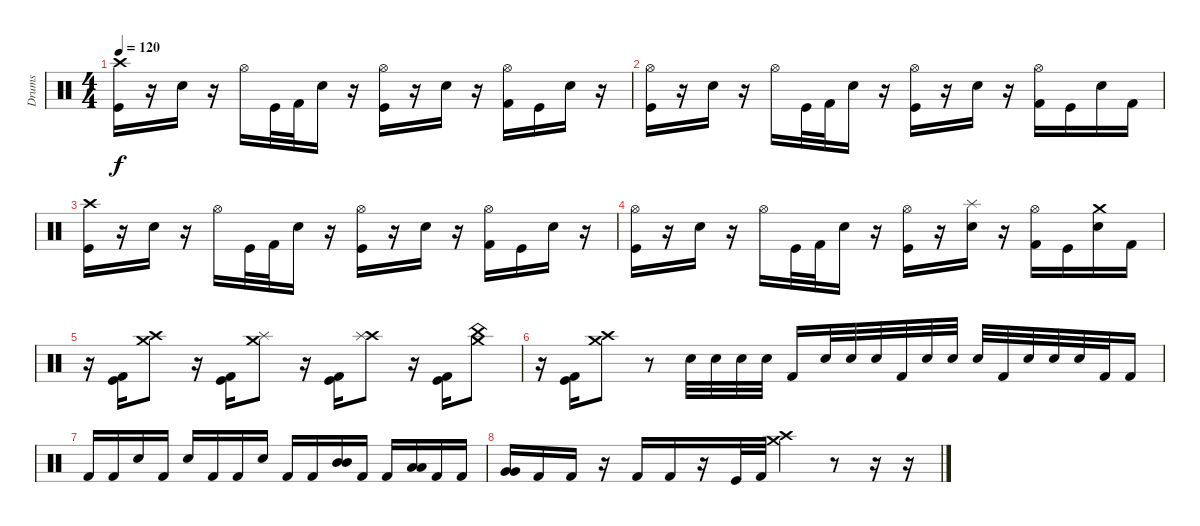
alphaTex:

\track ("Drums" "Drums") {instrument percussion}
\staff {score}
\articulation defaults
\ts (4 4)
\tempo 120
\clef neutral
\ks c
("Crash high (hit)" "Kick (hit)").16{dy f} r.16 "Electric Snare (hit)".16 r.16 "Hi-Hat (open)".16 "Kick (hit)".32 "Kick (hit) 2".32 "Electric Snare (hit)".16 r.16 ("Hi-Hat (open)" "Kick (hit)").16 r.16 "Electric Snare (hit)".16 r.16 ("Hi-Hat (open)" "Kick (hit) 2").16 "Kick (hit)".16 "Electric Snare (hit)".16 r.16 |
("Hi-Hat (open)" "Kick (hit)").16 r.16 "Electric Snare (hit)".16 r.16 "Hi-Hat (open)".16 "Kick (hit)".32 "Kick (hit) 2".32 "Electric Snare (hit)".16 r.16 ("Hi-Hat (open)" "Kick (hit)").16 r.16 "Electric Snare (hit)".16 r.16 ("Hi-Hat (open)" "Kick (hit) 2").16 "Kick (hit)".16 "Electric Snare (hit)".16 "Kick (hit) 2".16 |
("Crash high (hit)" "Kick (hit)").16 r.16 "Electric Snare (hit)".16 r.16 "Hi-Hat (open)".16 "Kick (hit)".32 "Kick (hit) 2".32 "Electric Snare (hit)".16 r.16 ("Hi-Hat (open)" "Kick (hit)").16 r.16 "Electric Snare (hit)".16 r.16 ("Hi-Hat (open)" "Kick (hit) 2").16 "Kick (hit)".16 "Electric Snare (hit)".16 r.16 |
("Hi-Hat (open)" "Kick (hit)").16 r.16 "Electric Snare (hit)".16 r.16 "Hi-Hat (open)".16 "Kick (hit)".32 "Kick (hit) 2".32 "Electric Snare (hit)".16 r.16 ("Hi-Hat (open)" "Kick (hit)").16 r.16 ("Splash (hit)" "Electric Snare (hit)").16 r.16 ("Hi-Hat (open)" "Kick (hit) 2").16 "Kick (hit)".16 ("Crash medium (hit)" "Electric Snare (hit)").16 "Kick (hit) 2".16 |
r.16 ("Kick (hit) 2" "Kick (hit)").16 ("Crash medium (hit)" "Crash high (hit)").8 r.16 ("Kick (hit) 2" "Kick (hit)").16 ("Splash (hit)" "Crash medium (hit)").8 r.16 ("Kick (hit) 2" "Kick (hit)").16 ("Crash high (hit)" "Splash (hit)").8 r.16 ("Kick (hit) 2" "Kick (hit)").16 ("Crash medium (hit)" "China (hit)").8 |
r.16 ("Kick (hit)" "Kick (hit) 2").16 ("Crash medium (hit)" "Crash high (hit)").8 r.8 "Electric Snare (hit)".32 "Electric Snare (hit)".32 "Electric Snare (hit)".32 "Electric Snare (hit)".32 "Kick (hit) 2".16 "Electric Snare (hit)".32 "Electric Snare (hit)".32 "Electric Snare (hit)".32 "Kick (hit) 2".32 "Electric Snare (hit)".32 "Electric Snare (hit)".32 "Electric Snare (hit)".32 "Kick (hit) 2".32 "Electric Snare (hit)".32 "Electric Snare (hit)".32 "Electric Snare (hit)".32 "Kick (hit) 2".32 "Kick (hit) 2".16 |
"Kick (hit) 2".16 "Kick (hit) 2".16 "Electric Snare (hit)".16 "Kick (hit) 2".16 "Electric Snare (hit)".16 "Kick (hit) 2".16 "Kick (hit) 2".16 "Electric Snare (hit)".16 "Kick (hit) 2".16 "Kick (hit) 2".16 ("Mid Tom (hit)" "Mid Tom (hit)").16 "Kick (hit) 2".16 "Kick (hit) 2".16 ("Low Tom (hit)" "Low Tom (hit)").16 "Kick (hit) 2".16 "Kick (hit) 2".16 |
("Very Low Tom (hit)" "Very Low Tom (hit)").16 "Kick (hit) 2".16 "Kick (hit) 2".16 r.16 "Kick (hit) 2".16 "Kick (hit) 2".16 r.16 "Kick (hit)".32 "Kick (hit) 2".32 ("Crash high (hit)" "Crash medium (hit)").4 r.8 r.16 r.16
